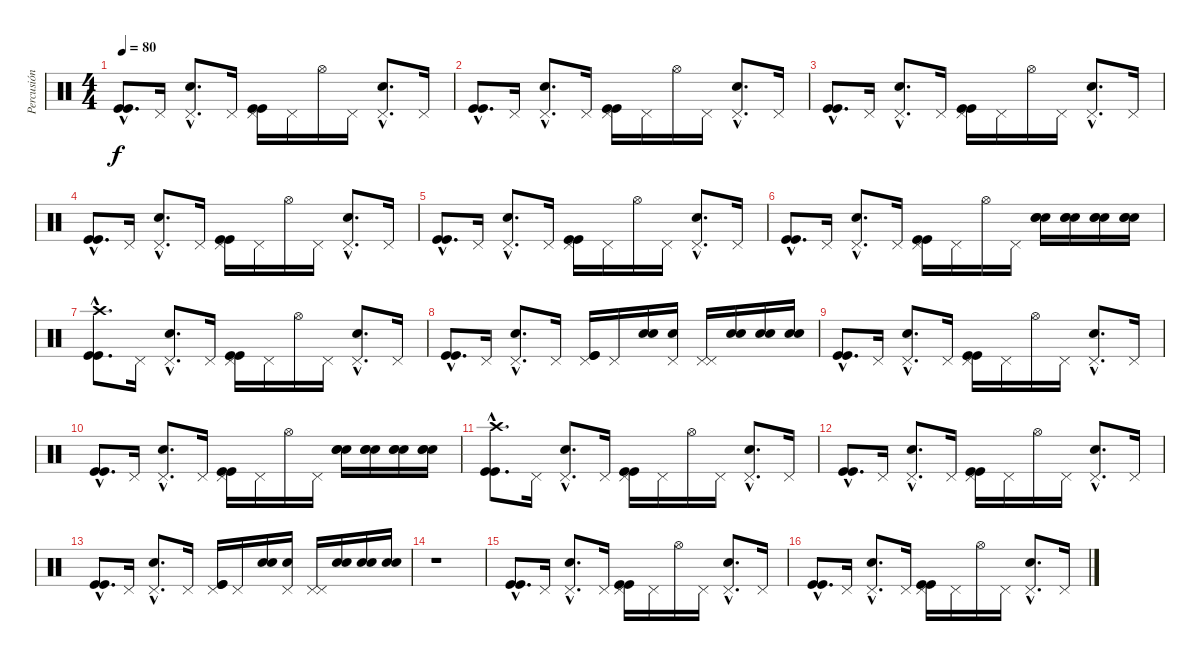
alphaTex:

\track ("Percusión" "Percusión") {instrument percussion}
\staff {score}
\articulation defaults
\ts (4 4)
\tempo 80
\clef neutral
\ks c
("Kick (hit)"{hac} "Kick (hit)"{hac}).8{d dy f} "Pedal Hi-Hat (hit)".16 ("Pedal Hi-Hat (hit)"{hac} "Electric Snare (hit)"{hac}).8{d} "Pedal Hi-Hat (hit)".16 ("Pedal Hi-Hat (hit)" "Kick (hit)" "Kick (hit)").16 "Pedal Hi-Hat (hit)".16 "Hi-Hat (open)".16 "Pedal Hi-Hat (hit)".16 ("Pedal Hi-Hat (hit)"{hac} "Electric Snare (hit)"{hac}).8{d} "Pedal Hi-Hat (hit)".16 |
("Kick (hit)"{hac} "Kick (hit)"{hac}).8{d} "Pedal Hi-Hat (hit)".16 ("Pedal Hi-Hat (hit)"{hac} "Electric Snare (hit)"{hac}).8{d} "Pedal Hi-Hat (hit)".16 ("Pedal Hi-Hat (hit)" "Kick (hit)" "Kick (hit)").16 "Pedal Hi-Hat (hit)".16 "Hi-Hat (open)".16 "Pedal Hi-Hat (hit)".16 ("Pedal Hi-Hat (hit)"{hac} "Electric Snare (hit)"{hac}).8{d} "Pedal Hi-Hat (hit)".16 |
("Kick (hit)"{hac} "Kick (hit)"{hac}).8{d} "Pedal Hi-Hat (hit)".16 ("Pedal Hi-Hat (hit)"{hac} "Electric Snare (hit)"{hac}).8{d} "Pedal Hi-Hat (hit)".16 ("Pedal Hi-Hat (hit)" "Kick (hit)" "Kick (hit)").16 "Pedal Hi-Hat (hit)".16 "Hi-Hat (open)".16 "Pedal Hi-Hat (hit)".16 ("Pedal Hi-Hat (hit)"{hac} "Electric Snare (hit)"{hac}).8{d} "Pedal Hi-Hat (hit)".16 |
("Kick (hit)"{hac} "Kick (hit)"{hac}).8{d} "Pedal Hi-Hat (hit)".16 ("Pedal Hi-Hat (hit)"{hac} "Electric Snare (hit)"{hac}).8{d} "Pedal Hi-Hat (hit)".16 ("Pedal Hi-Hat (hit)" "Kick (hit)" "Kick (hit)").16 "Pedal Hi-Hat (hit)".16 "Hi-Hat (open)".16 "Pedal Hi-Hat (hit)".16 ("Pedal Hi-Hat (hit)"{hac} "Electric Snare (hit)"{hac}).8{d} "Pedal Hi-Hat (hit)".16 |
("Kick (hit)"{hac} "Kick (hit)"{hac}).8{d} "Pedal Hi-Hat (hit)".16 ("Pedal Hi-Hat (hit)"{hac} "Electric Snare (hit)"{hac}).8{d} "Pedal Hi-Hat (hit)".16 ("Pedal Hi-Hat (hit)" "Kick (hit)" "Kick (hit)").16 "Pedal Hi-Hat (hit)".16 "Hi-Hat (open)".16 "Pedal Hi-Hat (hit)".16 ("Pedal Hi-Hat (hit)"{hac} "Electric Snare (hit)"{hac}).8{d} "Pedal Hi-Hat (hit)".16 |
("Kick (hit)"{hac} "Kick (hit)"{hac}).8{d} "Pedal Hi-Hat (hit)".16 ("Pedal Hi-Hat (hit)"{hac} "Electric Snare (hit)"{hac}).8{d} "Pedal Hi-Hat (hit)".16 ("Pedal Hi-Hat (hit)" "Kick (hit)" "Kick (hit)").16 "Pedal Hi-Hat (hit)".16 "Hi-Hat (open)".16 "Pedal Hi-Hat (hit)".16 ("Electric Snare (hit)" "Electric Snare (hit)" "Electric Snare (hit)").16 ("Electric Snare (hit)" "Electric Snare (hit)" "Electric Snare (hit)").16 ("Electric Snare (hit)" "Electric Snare (hit)" "Electric Snare (hit)").16 ("Electric Snare (hit)" "Electric Snare (hit)" "Electric Snare (hit)").16 |
("Crash high (hit)"{hac} "Kick (hit)"{hac} "Kick (hit)"{hac}).8{d} "Pedal Hi-Hat (hit)".16 ("Pedal Hi-Hat (hit)"{hac} "Electric Snare (hit)"{hac}).8{d} "Pedal Hi-Hat (hit)".16 ("Pedal Hi-Hat (hit)" "Kick (hit)" "Kick (hit)").16 "Pedal Hi-Hat (hit)".16 "Hi-Hat (open)".16 "Pedal Hi-Hat (hit)".16 ("Pedal Hi-Hat (hit)"{hac} "Electric Snare (hit)"{hac}).8{d} "Pedal Hi-Hat (hit)".16 |
("Kick (hit)"{hac} "Kick (hit)"{hac}).8{d} "Pedal Hi-Hat (hit)".16 ("Pedal Hi-Hat (hit)"{hac} "Electric Snare (hit)"{hac}).8{d} "Pedal Hi-Hat (hit)".16 ("Pedal Hi-Hat (hit)" "Kick (hit)" "Kick (hit)").16 "Pedal Hi-Hat (hit)".16 ("Electric Snare (hit)" "Electric Snare (hit)").16 ("Pedal Hi-Hat (hit)" "Electric Snare (hit)").16 ("Pedal Hi-Hat (hit)" "Pedal Hi-Hat (hit)").16 ("Electric Snare (hit)" "Electric Snare (hit)").16 ("Electric Snare (hit)" "Electric Snare (hit)").16 ("Electric Snare (hit)" "Electric Snare (hit)").16 |
("Kick (hit)"{hac} "Kick (hit)"{hac}).8{d} "Pedal Hi-Hat (hit)".16 ("Pedal Hi-Hat (hit)"{hac} "Electric Snare (hit)"{hac}).8{d} "Pedal Hi-Hat (hit)".16 ("Pedal Hi-Hat (hit)" "Kick (hit)" "Kick (hit)").16 "Pedal Hi-Hat (hit)".16 "Hi-Hat (open)".16 "Pedal Hi-Hat (hit)".16 ("Pedal Hi-Hat (hit)"{hac} "Electric Snare (hit)"{hac}).8{d} "Pedal Hi-Hat (hit)".16 |
("Kick (hit)"{hac} "Kick (hit)"{hac}).8{d} "Pedal Hi-Hat (hit)".16 ("Pedal Hi-Hat (hit)"{hac} "Electric Snare (hit)"{hac}).8{d} "Pedal Hi-Hat (hit)".16 ("Pedal Hi-Hat (hit)" "Kick (hit)" "Kick (hit)").16 "Pedal Hi-Hat (hit)".16 "Hi-Hat (open)".16 "Pedal Hi-Hat (hit)".16 ("Electric Snare (hit)" "Electric Snare (hit)" "Electric Snare (hit)").16 ("Electric Snare (hit)" "Electric Snare (hit)" "Electric Snare (hit)").16 ("Electric Snare (hit)" "Electric Snare (hit)" "Electric Snare (hit)").16 ("Electric Snare (hit)" "Electric Snare (hit)" "Electric Snare (hit)").16 |
("Crash high (hit)"{hac} "Kick (hit)"{hac} "Kick (hit)"{hac}).8{d} "Pedal Hi-Hat (hit)".16 ("Pedal Hi-Hat (hit)"{hac} "Electric Snare (hit)"{hac}).8{d} "Pedal Hi-Hat (hit)".16 ("Pedal Hi-Hat (hit)" "Kick (hit)" "Kick (hit)").16 "Pedal Hi-Hat (hit)".16 "Hi-Hat (open)".16 "Pedal Hi-Hat (hit)".16 ("Pedal Hi-Hat (hit)"{hac} "Electric Snare (hit)"{hac}).8{d} "Pedal Hi-Hat (hit)".16 |
("Kick (hit)"{hac} "Kick (hit)"{hac}).8{d} "Pedal Hi-Hat (hit)".16 ("Pedal Hi-Hat (hit)"{hac} "Electric Snare (hit)"{hac}).8{d} "Pedal Hi-Hat (hit)".16 ("Pedal Hi-Hat (hit)" "Kick (hit)" "Kick (hit)").16 "Pedal Hi-Hat (hit)".16 "Hi-Hat (open)".16 "Pedal Hi-Hat (hit)".16 ("Pedal Hi-Hat (hit)"{hac} "Electric Snare (hit)"{hac}).8{d} "Pedal Hi-Hat (hit)".16 |
("Kick (hit)"{hac} "Kick (hit)"{hac}).8{d} "Pedal Hi-Hat (hit)".16 ("Pedal Hi-Hat (hit)"{hac} "Electric Snare (hit)"{hac}).8{d} "Pedal Hi-Hat (hit)".16 ("Pedal Hi-Hat (hit)" "Kick (hit)" "Kick (hit)").16 "Pedal Hi-Hat (hit)".16 ("Electric Snare (hit)" "Electric Snare (hit)").16 ("Pedal Hi-Hat (hit)" "Electric Snare (hit)").16 ("Pedal Hi-Hat (hit)" "Pedal Hi-Hat (hit)").16 ("Electric Snare (hit)" "Electric Snare (hit)").16 ("Electric Snare (hit)" "Electric Snare (hit)").16 ("Electric Snare (hit)" "Electric Snare (hit)").16 |
r.1 |
("Kick (hit)"{hac} "Kick (hit)"{hac}).8{d} "Pedal Hi-Hat (hit)".16 ("Pedal Hi-Hat (hit)"{hac} "Electric Snare (hit)"{hac}).8{d} "Pedal Hi-Hat (hit)".16 ("Pedal Hi-Hat (hit)" "Kick (hit)" "Kick (hit)").16 "Pedal Hi-Hat (hit)".16 "Hi-Hat (open)".16 "Pedal Hi-Hat (hit)".16 ("Pedal Hi-Hat (hit)"{hac} "Electric Snare (hit)"{hac}).8{d} "Pedal Hi-Hat (hit)".16 |
("Kick (hit)"{hac} "Kick (hit)"{hac}).8{d} "Pedal Hi-Hat (hit)".16 ("Pedal Hi-Hat (hit)"{hac} "Electric Snare (hit)"{hac}).8{d} "Pedal Hi-Hat (hit)".16 ("Pedal Hi-Hat (hit)" "Kick (hit)" "Kick (hit)").16 "Pedal Hi-Hat (hit)".16 "Hi-Hat (open)".16 "Pedal Hi-Hat (hit)".16 ("Pedal Hi-Hat (hit)"{hac} "Electric Snare (hit)"{hac}).8{d} "Pedal Hi-Hat (hit)".16
